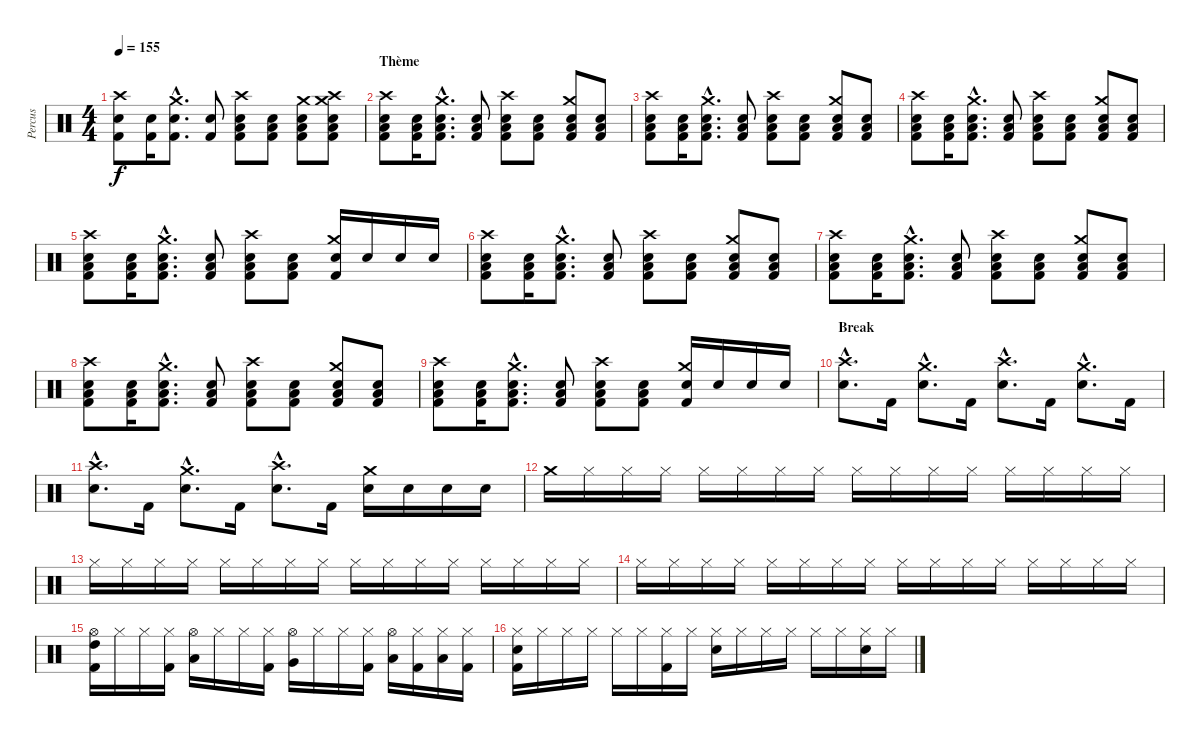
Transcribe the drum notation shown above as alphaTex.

\track ("Percus" "Percus") {instrument percussion}
\staff {score}
\articulation defaults
\ts (4 4)
\tempo 155
\clef neutral
\ks c
("Crash high (hit)" "Snare (hit) 2" "Kick (hit) 2").8{dy f} ("Snare (hit) 2" "Kick (hit) 2").16 ("Crash medium (hit)"{hac} "Snare (hit) 2"{hac} "Kick (hit) 2"{hac}).8{d} ("Snare (hit) 2" "Kick (hit) 2").8 ("Crash high (hit)" "Snare (hit) 2" "Low Tom (hit)" "Kick (hit) 2").8 ("Snare (hit) 2" "Low Tom (hit)" "Kick (hit) 2").8 ("Crash medium (hit)" "Snare (hit) 2" "Low Floor Tom (hit)" "Kick (hit) 2").8 ("Crash high (hit)" "Crash medium (hit)" "Snare (hit) 2" "Low Floor Tom (hit)" "Kick (hit) 2").8 |
\section ("" "Thème")
("Crash high (hit)" "Electric Snare (hit)" "Low Floor Tom (hit)" "Kick (hit) 2").8 ("Electric Snare (hit)" "Low Tom (hit)" "Kick (hit) 2").16 ("Crash medium (hit)"{hac} "Electric Snare (hit)"{hac} "Low Floor Tom (hit)"{hac} "Kick (hit) 2"{hac}).8{d} ("Electric Snare (hit)" "Low Tom (hit)" "Kick (hit) 2").8 ("Crash high (hit)" "Electric Snare (hit)" "Low Floor Tom (hit)" "Kick (hit) 2").8 ("Electric Snare (hit)" "Low Tom (hit)" "Kick (hit) 2").8 ("Crash medium (hit)" "Electric Snare (hit)" "Low Floor Tom (hit)" "Kick (hit) 2").8 ("Electric Snare (hit)" "Low Tom (hit)" "Kick (hit) 2").8 |
("Crash high (hit)" "Electric Snare (hit)" "Low Floor Tom (hit)" "Kick (hit) 2").8 ("Electric Snare (hit)" "Low Tom (hit)" "Kick (hit) 2").16 ("Crash medium (hit)"{hac} "Electric Snare (hit)"{hac} "Low Floor Tom (hit)"{hac} "Kick (hit) 2"{hac}).8{d} ("Electric Snare (hit)" "Low Tom (hit)" "Kick (hit) 2").8 ("Crash high (hit)" "Electric Snare (hit)" "Low Floor Tom (hit)" "Kick (hit) 2").8 ("Electric Snare (hit)" "Low Tom (hit)" "Kick (hit) 2").8 ("Crash medium (hit)" "Electric Snare (hit)" "Low Floor Tom (hit)" "Kick (hit) 2").8 ("Electric Snare (hit)" "Low Tom (hit)" "Kick (hit) 2").8 |
("Crash high (hit)" "Electric Snare (hit)" "Low Floor Tom (hit)" "Kick (hit) 2").8 ("Electric Snare (hit)" "Low Tom (hit)" "Kick (hit) 2").16 ("Crash medium (hit)"{hac} "Electric Snare (hit)"{hac} "Low Floor Tom (hit)"{hac} "Kick (hit) 2"{hac}).8{d} ("Electric Snare (hit)" "Low Tom (hit)" "Kick (hit) 2").8 ("Crash high (hit)" "Electric Snare (hit)" "Low Floor Tom (hit)" "Kick (hit) 2").8 ("Electric Snare (hit)" "Low Tom (hit)" "Kick (hit) 2").8 ("Crash medium (hit)" "Electric Snare (hit)" "Low Floor Tom (hit)" "Kick (hit) 2").8 ("Electric Snare (hit)" "Low Tom (hit)" "Kick (hit) 2").8 |
("Crash high (hit)" "Electric Snare (hit)" "Low Floor Tom (hit)" "Kick (hit) 2").8 ("Electric Snare (hit)" "Low Tom (hit)" "Kick (hit) 2").16 ("Crash medium (hit)"{hac} "Electric Snare (hit)"{hac} "Low Floor Tom (hit)"{hac} "Kick (hit) 2"{hac}).8{d} ("Electric Snare (hit)" "Low Tom (hit)" "Kick (hit) 2").8 ("Crash high (hit)" "Electric Snare (hit)" "Low Floor Tom (hit)" "Kick (hit) 2").8 ("Electric Snare (hit)" "Low Tom (hit)" "Kick (hit) 2").8 ("Crash medium (hit)" "Electric Snare (hit)" "Kick (hit) 2").16 "Electric Snare (hit)".16 "Electric Snare (hit)".16 "Electric Snare (hit)".16 |
("Crash high (hit)" "Electric Snare (hit)" "Low Floor Tom (hit)" "Kick (hit) 2").8 ("Electric Snare (hit)" "Low Tom (hit)" "Kick (hit) 2").16 ("Crash medium (hit)"{hac} "Electric Snare (hit)"{hac} "Low Floor Tom (hit)"{hac} "Kick (hit) 2"{hac}).8{d} ("Electric Snare (hit)" "Low Tom (hit)" "Kick (hit) 2").8 ("Crash high (hit)" "Electric Snare (hit)" "Low Floor Tom (hit)" "Kick (hit) 2").8 ("Electric Snare (hit)" "Low Tom (hit)" "Kick (hit) 2").8 ("Crash medium (hit)" "Electric Snare (hit)" "Low Floor Tom (hit)" "Kick (hit) 2").8 ("Electric Snare (hit)" "Low Tom (hit)" "Kick (hit) 2").8 |
("Crash high (hit)" "Electric Snare (hit)" "Low Floor Tom (hit)" "Kick (hit) 2").8 ("Electric Snare (hit)" "Low Tom (hit)" "Kick (hit) 2").16 ("Crash medium (hit)"{hac} "Electric Snare (hit)"{hac} "Low Floor Tom (hit)"{hac} "Kick (hit) 2"{hac}).8{d} ("Electric Snare (hit)" "Low Tom (hit)" "Kick (hit) 2").8 ("Crash high (hit)" "Electric Snare (hit)" "Low Floor Tom (hit)" "Kick (hit) 2").8 ("Electric Snare (hit)" "Low Tom (hit)" "Kick (hit) 2").8 ("Crash medium (hit)" "Electric Snare (hit)" "Low Floor Tom (hit)" "Kick (hit) 2").8 ("Electric Snare (hit)" "Low Tom (hit)" "Kick (hit) 2").8 |
("Crash high (hit)" "Electric Snare (hit)" "Low Floor Tom (hit)" "Kick (hit) 2").8 ("Electric Snare (hit)" "Low Tom (hit)" "Kick (hit) 2").16 ("Crash medium (hit)"{hac} "Electric Snare (hit)"{hac} "Low Floor Tom (hit)"{hac} "Kick (hit) 2"{hac}).8{d} ("Electric Snare (hit)" "Low Tom (hit)" "Kick (hit) 2").8 ("Crash high (hit)" "Electric Snare (hit)" "Low Floor Tom (hit)" "Kick (hit) 2").8 ("Electric Snare (hit)" "Low Tom (hit)" "Kick (hit) 2").8 ("Crash medium (hit)" "Electric Snare (hit)" "Low Floor Tom (hit)" "Kick (hit) 2").8 ("Electric Snare (hit)" "Low Tom (hit)" "Kick (hit) 2").8 |
("Crash high (hit)" "Electric Snare (hit)" "Low Floor Tom (hit)" "Kick (hit) 2").8 ("Electric Snare (hit)" "Low Tom (hit)" "Kick (hit) 2").16 ("Crash medium (hit)"{hac} "Electric Snare (hit)"{hac} "Low Floor Tom (hit)"{hac} "Kick (hit) 2"{hac}).8{d} ("Electric Snare (hit)" "Low Tom (hit)" "Kick (hit) 2").8 ("Crash high (hit)" "Electric Snare (hit)" "Low Floor Tom (hit)" "Kick (hit) 2").8 ("Electric Snare (hit)" "Low Tom (hit)" "Kick (hit) 2").8 ("Crash medium (hit)" "Electric Snare (hit)" "Kick (hit) 2").16 "Electric Snare (hit)".16 "Electric Snare (hit)".16 "Electric Snare (hit)".16 |
\section ("" "Break")
("Crash high (hit)"{hac} "Electric Snare (hit)"{hac}).8{d} "Kick (hit) 2".16 ("Crash medium (hit)"{hac} "Electric Snare (hit)"{hac}).8{d} "Kick (hit) 2".16 ("Crash high (hit)"{hac} "Electric Snare (hit)"{hac}).8{d} "Kick (hit) 2".16 ("Crash medium (hit)"{hac} "Electric Snare (hit)"{hac}).8{d} "Kick (hit) 2".16 |
("Crash high (hit)"{hac} "Electric Snare (hit)"{hac}).8{d} "Kick (hit) 2".16 ("Crash medium (hit)"{hac} "Electric Snare (hit)"{hac}).8{d} "Kick (hit) 2".16 ("Crash high (hit)"{hac} "Electric Snare (hit)"{hac}).8{d} "Kick (hit) 2".16 ("Crash medium (hit)" "Electric Snare (hit)").16 "Electric Snare (hit)".16 "Electric Snare (hit)".16 "Electric Snare (hit)".16 |
"Crash medium (hit)".16 "Hi-Hat (closed)".16 "Hi-Hat (closed)".16 "Hi-Hat (closed)".16 "Hi-Hat (closed)".16 "Hi-Hat (closed)".16 "Hi-Hat (closed)".16 "Hi-Hat (closed)".16 "Hi-Hat (closed)".16 "Hi-Hat (closed)".16 "Hi-Hat (closed)".16 "Hi-Hat (closed)".16 "Hi-Hat (closed)".16 "Hi-Hat (closed)".16 "Hi-Hat (closed)".16 "Hi-Hat (closed)".16 |
"Hi-Hat (closed)".16 "Hi-Hat (closed)".16 "Hi-Hat (closed)".16 "Hi-Hat (closed)".16 "Hi-Hat (closed)".16 "Hi-Hat (closed)".16 "Hi-Hat (closed)".16 "Hi-Hat (closed)".16 "Hi-Hat (closed)".16 "Hi-Hat (closed)".16 "Hi-Hat (closed)".16 "Hi-Hat (closed)".16 "Hi-Hat (closed)".16 "Hi-Hat (closed)".16 "Hi-Hat (closed)".16 "Hi-Hat (closed)".16 |
"Hi-Hat (closed)".16 "Hi-Hat (closed)".16 "Hi-Hat (closed)".16 "Hi-Hat (closed)".16 "Hi-Hat (closed)".16 "Hi-Hat (closed)".16 "Hi-Hat (closed)".16 "Hi-Hat (closed)".16 "Hi-Hat (closed)".16 "Hi-Hat (closed)".16 "Hi-Hat (closed)".16 "Hi-Hat (closed)".16 "Hi-Hat (closed)".16 "Hi-Hat (closed)".16 "Hi-Hat (closed)".16 "Hi-Hat (closed)".16 |
("Hi-Hat (open)" "High Tom (hit)" "Kick (hit) 2").16 "Hi-Hat (closed)".16 "Hi-Hat (closed)".16 ("Hi-Hat (closed)" "Kick (hit) 2").16 ("Hi-Hat (open)" "Low Tom (hit)").16 "Hi-Hat (closed)".16 "Hi-Hat (closed)".16 ("Hi-Hat (closed)" "Kick (hit) 2").16 ("Hi-Hat (open)" "Very Low Tom (hit)").16 "Hi-Hat (closed)".16 "Hi-Hat (closed)".16 ("Hi-Hat (closed)" "Kick (hit) 2").16 ("Hi-Hat (open)" "Low Floor Tom (hit)").16 ("Hi-Hat (closed)" "Kick (hit) 2").16 ("Hi-Hat (closed)" "Low Floor Tom (hit)").16 ("Hi-Hat (closed)" "Kick (hit) 2").16 |
("Hi-Hat (closed)" "Snare (hit) 2" "Kick (hit) 2").16 "Hi-Hat (closed)".16 "Hi-Hat (closed)".16 "Hi-Hat (closed)".16 "Hi-Hat (closed)".16 "Hi-Hat (closed)".16 ("Hi-Hat (closed)" "Kick (hit) 2").16 "Hi-Hat (closed)".16 ("Hi-Hat (closed)" "Snare (hit) 2").16 "Hi-Hat (closed)".16 "Hi-Hat (closed)".16 "Hi-Hat (closed)".16 "Hi-Hat (closed)".16 "Hi-Hat (closed)".16 ("Hi-Hat (closed)" "Snare (hit) 2").16 "Hi-Hat (closed)".16
